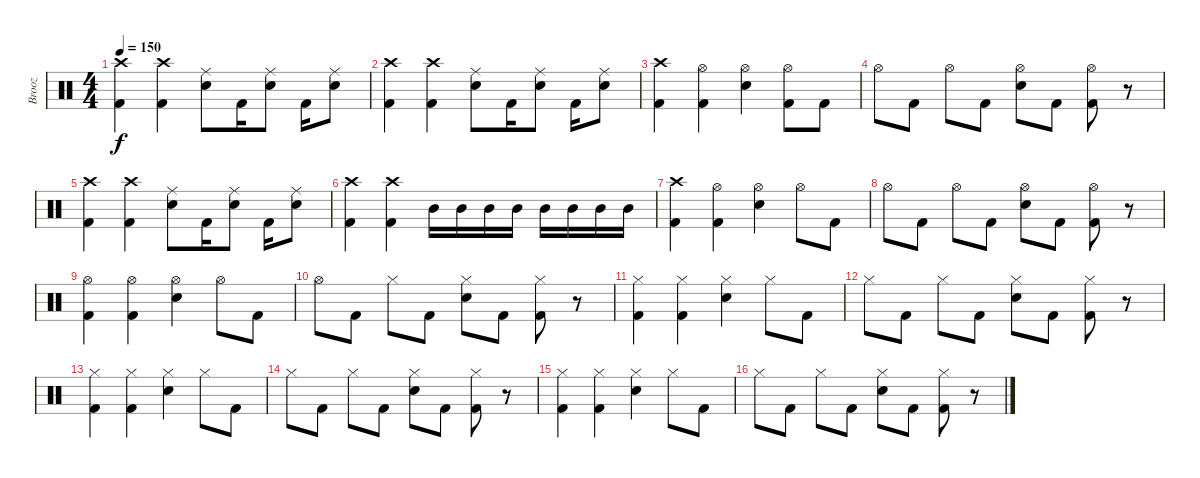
\track ("Brooz" "Brooz") {instrument percussion}
\staff {score}
\articulation defaults
\ts (4 4)
\tempo 150
\clef neutral
\ks c
("Crash high (hit)" "Kick (hit) 2").4{dy f} ("Crash high (hit)" "Kick (hit) 2").4 ("Ride (middle)" "Electric Snare (hit)").8 "Kick (hit) 2".16 ("Ride (middle)" "Electric Snare (hit)").8 "Kick (hit) 2".16 ("Ride (middle)" "Electric Snare (hit)").8 |
("Crash high (hit)" "Kick (hit) 2").4 ("Crash high (hit)" "Kick (hit) 2").4 ("Ride (middle)" "Electric Snare (hit)").8 "Kick (hit) 2".16 ("Ride (middle)" "Electric Snare (hit)").8 "Kick (hit) 2".16 ("Ride (middle)" "Electric Snare (hit)").8 |
("Crash high (hit)" "Kick (hit) 2").4 ("Hi-Hat (open)" "Kick (hit) 2").4 ("Hi-Hat (open)" "Electric Snare (hit)").4 ("Hi-Hat (open)" "Kick (hit) 2").8 "Kick (hit) 2".8 |
"Hi-Hat (open)".8 "Kick (hit) 2".8 "Hi-Hat (open)".8 "Kick (hit) 2".8 ("Hi-Hat (open)" "Electric Snare (hit)").8 "Kick (hit) 2".8 ("Hi-Hat (open)" "Kick (hit) 2").8 r.8 |
("Crash high (hit)" "Kick (hit) 2").4 ("Crash high (hit)" "Kick (hit) 2").4 ("Ride (middle)" "Electric Snare (hit)").8 "Kick (hit) 2".16 ("Ride (middle)" "Electric Snare (hit)").8 "Kick (hit) 2".16 ("Ride (middle)" "Electric Snare (hit)").8 |
("Crash high (hit)" "Kick (hit) 2").4 ("Crash high (hit)" "Kick (hit) 2").4 "Mid Tom (hit)".16 "Mid Tom (hit)".16 "Mid Tom (hit)".16 "Mid Tom (hit)".16 "Mid Tom (hit)".16 "Mid Tom (hit)".16 "Mid Tom (hit)".16 "Mid Tom (hit)".16 |
("Crash high (hit)" "Kick (hit) 2").4 ("Hi-Hat (open)" "Kick (hit) 2").4 ("Hi-Hat (open)" "Electric Snare (hit)").4 "Hi-Hat (open)".8 "Kick (hit) 2".8 |
"Hi-Hat (open)".8 "Kick (hit) 2".8 "Hi-Hat (open)".8 "Kick (hit) 2".8 ("Hi-Hat (open)" "Electric Snare (hit)").8 "Kick (hit) 2".8 ("Hi-Hat (open)" "Kick (hit) 2").8 r.8 |
("Hi-Hat (open)" "Kick (hit) 2").4 ("Hi-Hat (open)" "Kick (hit) 2").4 ("Hi-Hat (open)" "Electric Snare (hit)").4 "Hi-Hat (open)".8 "Kick (hit) 2".8 |
"Hi-Hat (open)".8 "Kick (hit) 2".8 "Hi-Hat (closed)".8 "Kick (hit) 2".8 ("Hi-Hat (closed)" "Electric Snare (hit)").8 "Kick (hit) 2".8 ("Hi-Hat (closed)" "Kick (hit) 2").8 r.8 |
("Hi-Hat (closed)" "Kick (hit) 2").4 ("Hi-Hat (closed)" "Kick (hit) 2").4 ("Hi-Hat (closed)" "Electric Snare (hit)").4 "Hi-Hat (closed)".8 "Kick (hit) 2".8 |
"Hi-Hat (closed)".8 "Kick (hit) 2".8 "Hi-Hat (closed)".8 "Kick (hit) 2".8 ("Hi-Hat (closed)" "Electric Snare (hit)").8 "Kick (hit) 2".8 ("Hi-Hat (closed)" "Kick (hit) 2").8 r.8 |
("Hi-Hat (closed)" "Kick (hit) 2").4 ("Hi-Hat (closed)" "Kick (hit) 2").4 ("Hi-Hat (closed)" "Electric Snare (hit)").4 "Hi-Hat (closed)".8 "Kick (hit) 2".8 |
"Hi-Hat (closed)".8 "Kick (hit) 2".8 "Hi-Hat (closed)".8 "Kick (hit) 2".8 ("Hi-Hat (closed)" "Electric Snare (hit)").8 "Kick (hit) 2".8 ("Hi-Hat (closed)" "Kick (hit) 2").8 r.8 |
("Hi-Hat (closed)" "Kick (hit) 2").4 ("Hi-Hat (closed)" "Kick (hit) 2").4 ("Hi-Hat (closed)" "Electric Snare (hit)").4 "Hi-Hat (closed)".8 "Kick (hit) 2".8 |
"Hi-Hat (closed)".8 "Kick (hit) 2".8 "Hi-Hat (closed)".8 "Kick (hit) 2".8 ("Hi-Hat (closed)" "Electric Snare (hit)").8 "Kick (hit) 2".8 ("Hi-Hat (closed)" "Kick (hit) 2").8 r.8
